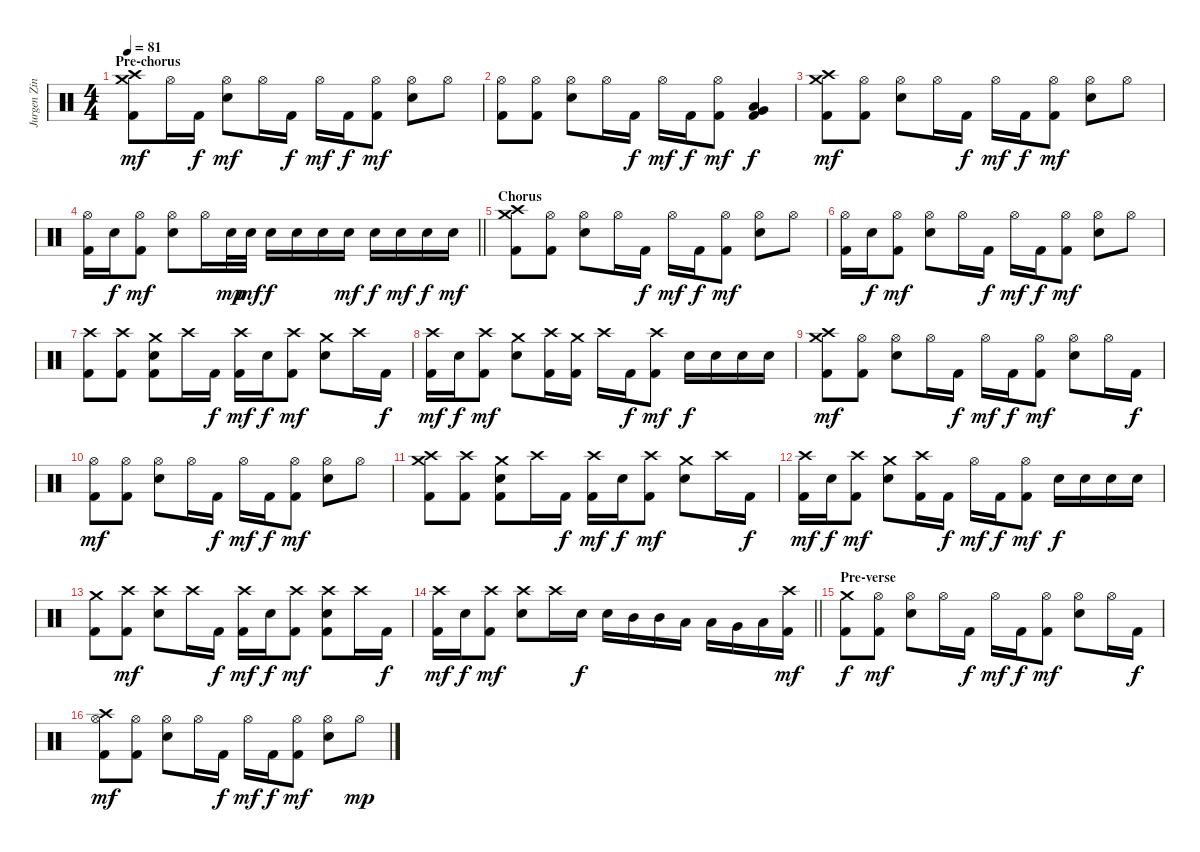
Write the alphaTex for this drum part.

\track ("Jurgen Zing" "Jurgen Zin") {instrument percussion}
\staff {score}
\articulation defaults
\ts (4 4)
\section ("" "Pre-chorus")
\tempo 81
\clef neutral
\ks c
("Crash medium (hit)" "Crash high (hit)" "Kick (hit) 2").8{dy mf} "Hi-Hat (open)".16 "Kick (hit) 2".16{dy f} ("Hi-Hat (open)" "Electric Snare (hit)").8{dy mf} "Hi-Hat (open)".16 "Kick (hit) 2".16{dy f} "Hi-Hat (open)".16{dy mf} "Kick (hit) 2".16{dy f} ("Hi-Hat (open)" "Kick (hit) 2").8{dy mf} ("Hi-Hat (open)" "Electric Snare (hit)").8 "Hi-Hat (open)".8 |
("Hi-Hat (open)" "Kick (hit) 2").8 ("Hi-Hat (open)" "Kick (hit) 2").8 ("Hi-Hat (open)" "Electric Snare (hit)").8 "Hi-Hat (open)".16 "Kick (hit) 2".16{dy f} "Hi-Hat (open)".16{dy mf} "Kick (hit) 2".16{dy f} ("Hi-Hat (open)" "Kick (hit) 2").8{dy mf} ("Low Tom (hit)" "Very Low Tom (hit)" "Kick (hit) 2").4{dy f} |
("Crash medium (hit)" "Crash high (hit)" "Kick (hit) 2").8{dy mf} ("Hi-Hat (open)" "Kick (hit) 2").8 ("Hi-Hat (open)" "Electric Snare (hit)").8 "Hi-Hat (open)".16 "Kick (hit) 2".16{dy f} "Hi-Hat (open)".16{dy mf} "Kick (hit) 2".16{dy f} ("Hi-Hat (open)" "Kick (hit) 2").8{dy mf} ("Hi-Hat (open)" "Electric Snare (hit)").8 "Hi-Hat (open)".8 |
\barLineRight lightlight
("Hi-Hat (open)" "Kick (hit) 2").16 "Electric Snare (hit)".16{dy f} ("Hi-Hat (open)" "Kick (hit) 2").8{dy mf} ("Hi-Hat (open)" "Electric Snare (hit)").8 "Hi-Hat (open)".16 "Electric Snare (hit)".32{dy mp} "Electric Snare (hit)".32{dy mf} "Electric Snare (hit)".16{dy f} "Electric Snare (hit)".16 "Electric Snare (hit)".16 "Electric Snare (hit)".16{dy mf} "Electric Snare (hit)".16{dy f} "Electric Snare (hit)".16{dy mf} "Electric Snare (hit)".16{dy f} "Electric Snare (hit)".16{dy mf} |
\section ("" "Chorus")
("Crash medium (hit)" "Crash high (hit)" "Kick (hit) 2").8 ("Hi-Hat (open)" "Kick (hit) 2").8 ("Hi-Hat (open)" "Electric Snare (hit)").8 "Hi-Hat (open)".16 "Kick (hit) 2".16{dy f} "Hi-Hat (open)".16{dy mf} "Kick (hit) 2".16{dy f} ("Hi-Hat (open)" "Kick (hit) 2").8{dy mf} ("Hi-Hat (open)" "Electric Snare (hit)").8 "Hi-Hat (open)".8 |
("Hi-Hat (open)" "Kick (hit) 2").16 "Electric Snare (hit)".16{dy f} ("Hi-Hat (open)" "Kick (hit) 2").8{dy mf} ("Hi-Hat (open)" "Electric Snare (hit)").8 "Hi-Hat (open)".16 "Kick (hit) 2".16{dy f} "Hi-Hat (open)".16{dy mf} "Kick (hit) 2".16{dy f} ("Hi-Hat (open)" "Kick (hit) 2").8{dy mf} ("Hi-Hat (open)" "Electric Snare (hit)").8 "Hi-Hat (open)".8 |
("Crash high (hit)" "Kick (hit) 2").8 ("Crash high (hit)" "Kick (hit) 2").8 ("Crash medium (hit)" "Electric Snare (hit)" "Kick (hit) 2").8 "Crash high (hit)".16 "Kick (hit) 2".16{dy f} ("Crash high (hit)" "Kick (hit) 2").16{dy mf} "Electric Snare (hit)".16{dy f} ("Crash high (hit)" "Kick (hit) 2").8{dy mf} ("Crash medium (hit)" "Electric Snare (hit)").8 "Crash high (hit)".16 "Kick (hit) 2".16{dy f} |
("Crash high (hit)" "Kick (hit) 2").16{dy mf} "Electric Snare (hit)".16{dy f} ("Crash high (hit)" "Kick (hit) 2").8{dy mf} ("Crash medium (hit)" "Electric Snare (hit)").8 ("Crash high (hit)" "Kick (hit) 2").16 ("Crash medium (hit)" "Kick (hit) 2").16 "Crash high (hit)".16 "Kick (hit) 2".16{dy f} ("Crash high (hit)" "Kick (hit) 2").8{dy mf} "Electric Snare (hit)".16{dy f} "Electric Snare (hit)".16 "Electric Snare (hit)".16 "Electric Snare (hit)".16 |
("Crash medium (hit)" "Crash high (hit)" "Kick (hit) 2").8{dy mf} ("Hi-Hat (open)" "Kick (hit) 2").8 ("Hi-Hat (open)" "Electric Snare (hit)").8 "Hi-Hat (open)".16 "Kick (hit) 2".16{dy f} "Hi-Hat (open)".16{dy mf} "Kick (hit) 2".16{dy f} ("Hi-Hat (open)" "Kick (hit) 2").8{dy mf} ("Hi-Hat (open)" "Electric Snare (hit)").8 "Hi-Hat (open)".16 "Kick (hit) 2".16{dy f} |
("Hi-Hat (open)" "Kick (hit) 2").8{dy mf} ("Hi-Hat (open)" "Kick (hit) 2").8 ("Hi-Hat (open)" "Electric Snare (hit)").8 "Hi-Hat (open)".16 "Kick (hit) 2".16{dy f} "Hi-Hat (open)".16{dy mf} "Kick (hit) 2".16{dy f} ("Hi-Hat (open)" "Kick (hit) 2").8{dy mf} ("Hi-Hat (open)" "Electric Snare (hit)").8 "Hi-Hat (open)".8 |
("Crash medium (hit)" "Crash high (hit)" "Kick (hit) 2").8 ("Crash high (hit)" "Kick (hit) 2").8 ("Crash medium (hit)" "Electric Snare (hit)" "Kick (hit) 2").8 "Crash high (hit)".16 "Kick (hit) 2".16{dy f} ("Crash high (hit)" "Kick (hit) 2").16{dy mf} "Electric Snare (hit)".16{dy f} ("Crash high (hit)" "Kick (hit) 2").8{dy mf} ("Crash medium (hit)" "Electric Snare (hit)").8 "Crash high (hit)".16 "Kick (hit) 2".16{dy f} |
("Crash high (hit)" "Kick (hit) 2").16{dy mf} "Electric Snare (hit)".16{dy f} ("Crash high (hit)" "Kick (hit) 2").8{dy mf} ("Crash medium (hit)" "Electric Snare (hit)").8 ("Crash high (hit)" "Kick (hit) 2").16 "Kick (hit) 2".16{dy f} "Hi-Hat (open)".16{dy mf} "Kick (hit) 2".16{dy f} ("Hi-Hat (open)" "Kick (hit) 2").8{dy mf} "Electric Snare (hit)".16{dy f} "Electric Snare (hit)".16 "Electric Snare (hit)".16 "Electric Snare (hit)".16 |
("Crash medium (hit)" "Kick (hit) 2").8 ("Crash high (hit)" "Kick (hit) 2").8{dy mf} ("Crash high (hit)" "Electric Snare (hit)").8 "Crash high (hit)".16 "Kick (hit) 2".16{dy f} ("Crash high (hit)" "Kick (hit) 2").16{dy mf} "Electric Snare (hit)".16{dy f} ("Crash high (hit)" "Kick (hit) 2").8{dy mf} ("Crash high (hit)" "Electric Snare (hit)" "Kick (hit) 2").8 "Crash high (hit)".16 "Kick (hit) 2".16{dy f} |
\barLineRight lightlight
("Crash high (hit)" "Kick (hit) 2").16{dy mf} "Electric Snare (hit)".16{dy f} ("Crash high (hit)" "Kick (hit) 2").8{dy mf} ("Crash high (hit)" "Electric Snare (hit)").8 "Crash high (hit)".16 "Electric Snare (hit)".16{dy f} "Electric Snare (hit)".16 "Mid Tom (hit)".16 "Mid Tom (hit)".16 "Low Tom (hit)".16 "Low Tom (hit)".16 "Very Low Tom (hit)".16 "Low Floor Tom (hit)".16 ("Crash high (hit)" "Kick (hit) 2").16{dy mf} |
\section ("" "Pre-verse")
("Crash medium (hit)" "Kick (hit) 2").8{dy f} ("Hi-Hat (open)" "Kick (hit) 2").8{dy mf} ("Hi-Hat (open)" "Electric Snare (hit)").8 "Hi-Hat (open)".16 "Kick (hit) 2".16{dy f} "Hi-Hat (open)".16{dy mf} "Kick (hit) 2".16{dy f} ("Hi-Hat (open)" "Kick (hit) 2").8{dy mf} ("Hi-Hat (open)" "Electric Snare (hit)").8 "Hi-Hat (open)".16 "Kick (hit) 2".16{dy f} |
("Crash high (hit)" "Hi-Hat (open)" "Kick (hit) 2").8{dy mf} ("Hi-Hat (open)" "Kick (hit) 2").8 ("Hi-Hat (open)" "Electric Snare (hit)").8 "Hi-Hat (open)".16 "Kick (hit) 2".16{dy f} "Hi-Hat (open)".16{dy mf} "Kick (hit) 2".16{dy f} ("Hi-Hat (open)" "Kick (hit) 2").8{dy mf} ("Hi-Hat (open)" "Electric Snare (hit)").8 "Hi-Hat (open)".8{dy mp}
